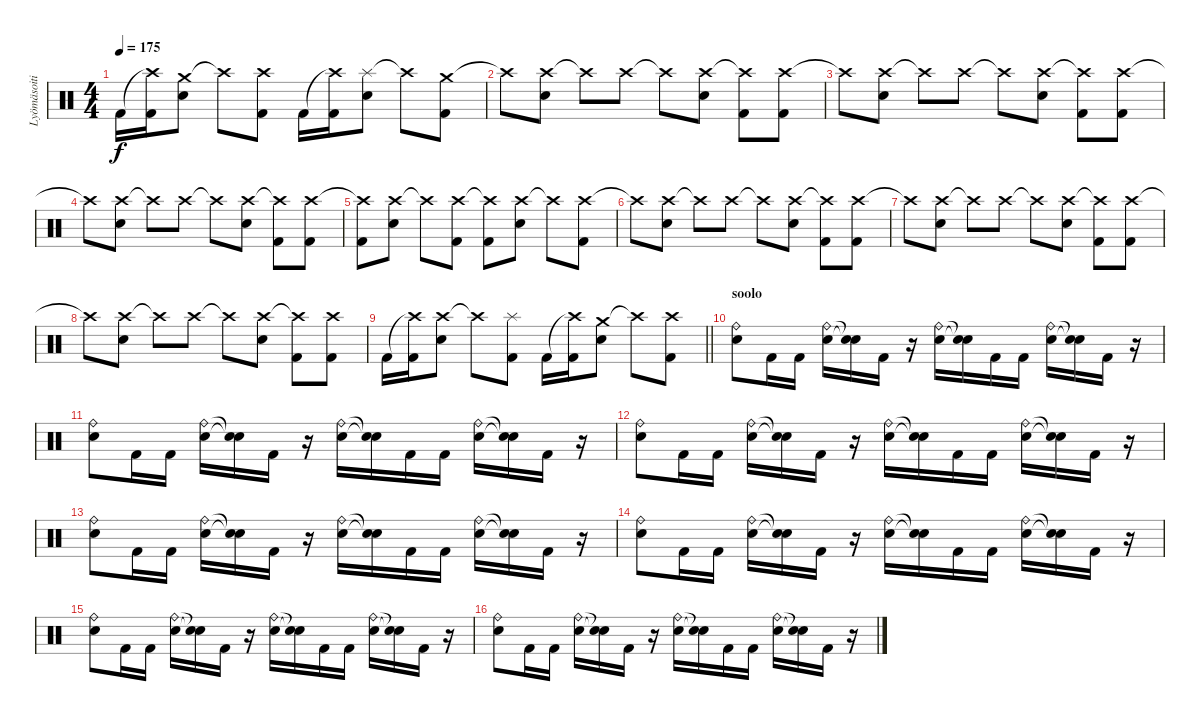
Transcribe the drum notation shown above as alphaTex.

\track ("Lyömäsoitin" "Lyömäsoiti") {instrument percussion}
\staff {score}
\articulation defaults
\ts (4 4)
\tempo 175
\clef neutral
\ks c "Kick (hit) 2".16{dy f}
("Crash high (hit)"{t} "Kick (hit) 2").16 ("Crash medium (hit)" "Electric Snare (hit)").8 "Crash high (hit)"{t}.8 ("Crash high (hit)" "Kick (hit) 2").8 "Kick (hit) 2".16 ("Crash high (hit)"{t} "Kick (hit) 2").16 ("Splash (hit)" "Electric Snare (hit)").8 "Crash high (hit)"{t}.8 ("Crash medium (hit)" "Kick (hit) 2").8 |
"Crash high (hit)"{t}.8 ("Crash high (hit)" "Electric Snare (hit)").8 "Crash high (hit)"{t}.8 "Crash high (hit)".8 "Crash high (hit)"{t}.8 ("Crash high (hit)" "Electric Snare (hit)").8 ("Crash high (hit)"{t} "Kick (hit) 2").8 ("Crash high (hit)" "Kick (hit) 2").8 |
"Crash high (hit)"{t}.8 ("Crash high (hit)" "Electric Snare (hit)").8 "Crash high (hit)"{t}.8 "Crash high (hit)".8 "Crash high (hit)"{t}.8 ("Crash high (hit)" "Electric Snare (hit)").8 ("Crash high (hit)"{t} "Kick (hit) 2").8 ("Crash high (hit)" "Kick (hit) 2").8 |
"Crash high (hit)"{t}.8 ("Crash high (hit)" "Electric Snare (hit)").8 "Crash high (hit)"{t}.8 "Crash high (hit)".8 "Crash high (hit)"{t}.8 ("Crash high (hit)" "Electric Snare (hit)").8 ("Crash high (hit)"{t} "Kick (hit) 2").8 ("Crash high (hit)" "Kick (hit) 2").8 |
("Crash high (hit)"{t} "Kick (hit) 2").8 ("Crash high (hit)" "Electric Snare (hit)").8 "Crash high (hit)"{t}.8 ("Crash high (hit)" "Kick (hit) 2").8 ("Crash high (hit)"{t} "Kick (hit) 2").8 ("Crash high (hit)" "Electric Snare (hit)").8 "Crash high (hit)"{t}.8 ("Crash high (hit)" "Kick (hit) 2").8 |
"Crash high (hit)"{t}.8 ("Crash high (hit)" "Electric Snare (hit)").8 "Crash high (hit)"{t}.8 "Crash high (hit)".8 "Crash high (hit)"{t}.8 ("Crash high (hit)" "Electric Snare (hit)").8 ("Crash high (hit)"{t} "Kick (hit) 2").8 ("Crash high (hit)" "Kick (hit) 2").8 |
"Crash high (hit)"{t}.8 ("Crash high (hit)" "Electric Snare (hit)").8 "Crash high (hit)"{t}.8 "Crash high (hit)".8 "Crash high (hit)"{t}.8 ("Crash high (hit)" "Electric Snare (hit)").8 ("Crash high (hit)"{t} "Kick (hit) 2").8 ("Crash high (hit)" "Kick (hit) 2").8 |
"Crash high (hit)"{t}.8 ("Crash high (hit)" "Electric Snare (hit)").8 "Crash high (hit)"{t}.8 "Crash high (hit)".8 "Crash high (hit)"{t}.8 ("Crash high (hit)" "Electric Snare (hit)").8 ("Crash high (hit)"{t} "Kick (hit) 2").8 ("Crash high (hit)" "Kick (hit) 2").8 |
\barLineRight lightlight "Kick (hit) 2".16
("Crash high (hit)"{t} "Kick (hit) 2").16 ("Crash high (hit)" "Electric Snare (hit)").8 "Crash high (hit)"{t}.8 ("Splash (hit)" "Kick (hit) 2").8 "Kick (hit) 2".16 ("Crash high (hit)"{t} "Kick (hit) 2").16 ("Crash medium (hit)" "Electric Snare (hit)").8 "Crash high (hit)"{t}.8 ("Crash high (hit)" "Kick (hit) 2").8 |
\section ("" "soolo")
("Electric Snare (hit)" "Ride (bell)").8 "Kick (hit) 2".16 "Kick (hit) 2".16 ("Electric Snare (hit)" "Ride (bell)").16 ("Snare (hit)"{t} "Snare (hit)"{t}).16 "Kick (hit) 2".16 r.16 ("Electric Snare (hit)" "Ride (bell)").16 ("Snare (hit)"{t} "Snare (hit)"{t}).16 "Kick (hit) 2".16 "Kick (hit) 2".16 ("Electric Snare (hit)" "Ride (bell)").16 ("Snare (hit)"{t} "Snare (hit)"{t}).16 "Kick (hit) 2".16 r.16 |
("Electric Snare (hit)" "Ride (bell)").8 "Kick (hit) 2".16 "Kick (hit) 2".16 ("Electric Snare (hit)" "Ride (bell)").16 ("Snare (hit)"{t} "Snare (hit)"{t}).16 "Kick (hit) 2".16 r.16 ("Electric Snare (hit)" "Ride (bell)").16 ("Snare (hit)"{t} "Snare (hit)"{t}).16 "Kick (hit) 2".16 "Kick (hit) 2".16 ("Electric Snare (hit)" "Ride (bell)").16 ("Snare (hit)"{t} "Snare (hit)"{t}).16 "Kick (hit) 2".16 r.16 |
("Electric Snare (hit)" "Ride (bell)").8 "Kick (hit) 2".16 "Kick (hit) 2".16 ("Electric Snare (hit)" "Ride (bell)").16 ("Snare (hit)"{t} "Snare (hit)"{t}).16 "Kick (hit) 2".16 r.16 ("Electric Snare (hit)" "Ride (bell)").16 ("Snare (hit)"{t} "Snare (hit)"{t}).16 "Kick (hit) 2".16 "Kick (hit) 2".16 ("Electric Snare (hit)" "Ride (bell)").16 ("Snare (hit)"{t} "Snare (hit)"{t}).16 "Kick (hit) 2".16 r.16 |
("Electric Snare (hit)" "Ride (bell)").8 "Kick (hit) 2".16 "Kick (hit) 2".16 ("Electric Snare (hit)" "Ride (bell)").16 ("Snare (hit)"{t} "Snare (hit)"{t}).16 "Kick (hit) 2".16 r.16 ("Electric Snare (hit)" "Ride (bell)").16 ("Snare (hit)"{t} "Snare (hit)"{t}).16 "Kick (hit) 2".16 "Kick (hit) 2".16 ("Electric Snare (hit)" "Ride (bell)").16 ("Snare (hit)"{t} "Snare (hit)"{t}).16 "Kick (hit) 2".16 r.16 |
("Electric Snare (hit)" "Ride (bell)").8 "Kick (hit) 2".16 "Kick (hit) 2".16 ("Electric Snare (hit)" "Ride (bell)").16 ("Snare (hit)"{t} "Snare (hit)"{t}).16 "Kick (hit) 2".16 r.16 ("Electric Snare (hit)" "Ride (bell)").16 ("Snare (hit)"{t} "Snare (hit)"{t}).16 "Kick (hit) 2".16 "Kick (hit) 2".16 ("Electric Snare (hit)" "Ride (bell)").16 ("Snare (hit)"{t} "Snare (hit)"{t}).16 "Kick (hit) 2".16 r.16 |
("Electric Snare (hit)" "Ride (bell)").8 "Kick (hit) 2".16 "Kick (hit) 2".16 ("Electric Snare (hit)" "Ride (bell)").16 ("Snare (hit)"{t} "Snare (hit)"{t}).16 "Kick (hit) 2".16 r.16 ("Electric Snare (hit)" "Ride (bell)").16 ("Snare (hit)"{t} "Snare (hit)"{t}).16 "Kick (hit) 2".16 "Kick (hit) 2".16 ("Electric Snare (hit)" "Ride (bell)").16 ("Snare (hit)"{t} "Snare (hit)"{t}).16 "Kick (hit) 2".16 r.16 |
("Electric Snare (hit)" "Ride (bell)").8 "Kick (hit) 2".16 "Kick (hit) 2".16 ("Electric Snare (hit)" "Ride (bell)").16 ("Snare (hit)"{t} "Snare (hit)"{t}).16 "Kick (hit) 2".16 r.16 ("Electric Snare (hit)" "Ride (bell)").16 ("Snare (hit)"{t} "Snare (hit)"{t}).16 "Kick (hit) 2".16 "Kick (hit) 2".16 ("Electric Snare (hit)" "Ride (bell)").16 ("Snare (hit)"{t} "Snare (hit)"{t}).16 "Kick (hit) 2".16 r.16
